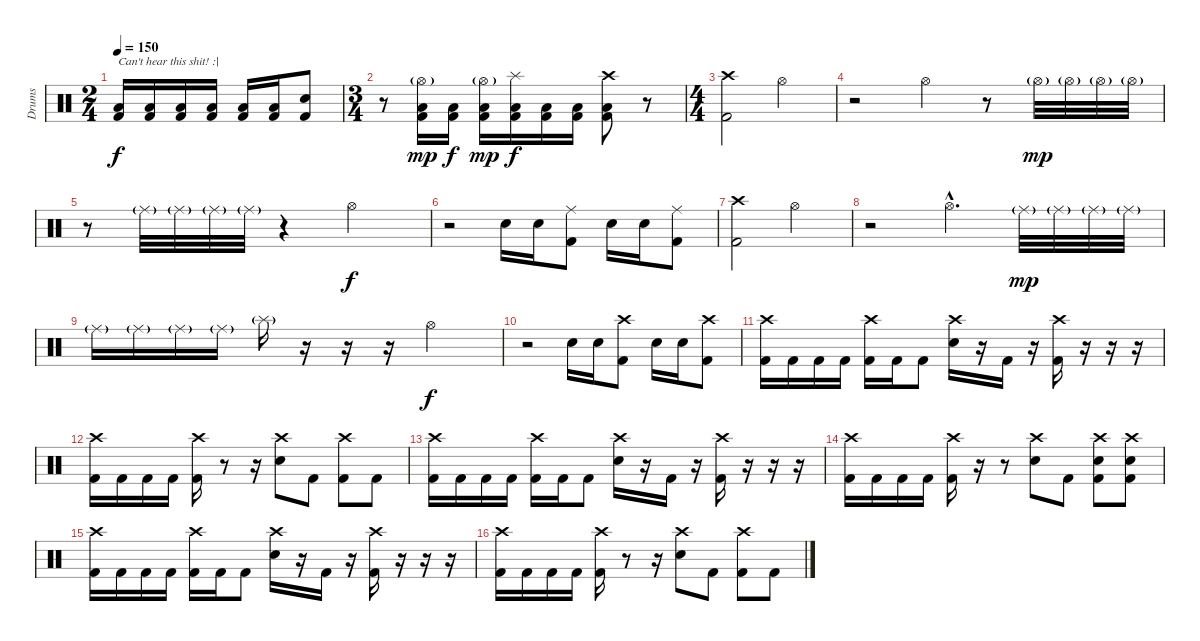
\track ("Drums" "Drums") {instrument percussion}
\staff {score}
\articulation defaults
\ts (2 4)
\tempo 150
\clef neutral
\ks c
("Low Floor Tom (hit)" "Kick (hit) 2").16{txt "Can't hear this shit! :|" dy f} ("Low Floor Tom (hit)" "Kick (hit) 2").16 ("Low Floor Tom (hit)" "Kick (hit) 2").16 ("Low Floor Tom (hit)" "Kick (hit) 2").16 ("Low Floor Tom (hit)" "Kick (hit) 2").16 ("Low Floor Tom (hit)" "Kick (hit) 2").16 ("Electric Snare (hit)" "Kick (hit) 2").8 |
\ts (3 4)
r.8 ("Hi-Hat (open)"{g} "Low Floor Tom (hit)" "Kick (hit) 2").16{dy mp} ("Low Floor Tom (hit)" "Kick (hit) 2").16{dy f} ("Hi-Hat (open)"{g} "Low Floor Tom (hit)" "Kick (hit) 2").16{dy mp} ("Splash (hit)" "Low Floor Tom (hit)" "Kick (hit) 2").16{dy f} ("Low Floor Tom (hit)" "Kick (hit) 2").16 ("Low Floor Tom (hit)" "Kick (hit) 2").16 ("Crash high (hit)" "Low Floor Tom (hit)" "Kick (hit) 2").8 r.8 |
\ts (4 4)
("Crash high (hit)" "Kick (hit) 2").2 "Hi-Hat (open)".2 |
r.2 "Hi-Hat (open)".4 r.8 "Hi-Hat (open)"{g}.32{dy mp} "Hi-Hat (open)"{g}.32 "Hi-Hat (open)"{g}.32 "Hi-Hat (open)"{g}.32 |
r.8 "Ride (middle)"{g}.32 "Ride (middle)"{g}.32 "Ride (middle)"{g}.32 "Ride (middle)"{g}.32 r.4 "Hi-Hat (open)".2{dy f} |
r.2 "Electric Snare (hit)".16 "Electric Snare (hit)".16 ("Ride (middle)" "Kick (hit) 2").8 "Electric Snare (hit)".16 "Electric Snare (hit)".16 ("Ride (middle)" "Kick (hit) 2").8 |
("Crash high (hit)" "Kick (hit) 2").2 "Hi-Hat (open)".2 |
r.2 "Hi-Hat (open)"{hac}.4{d} "Ride (middle)"{g}.32{dy mp} "Ride (middle)"{g}.32 "Ride (middle)"{g}.32 "Ride (middle)"{g}.32 |
"Ride (middle)"{g}.16 "Ride (middle)"{g}.16 "Ride (middle)"{g}.16 "Ride (middle)"{g}.16 "Splash (hit)"{g}.16 r.16 r.16 r.16 "Hi-Hat (open)".2{dy f} |
r.2 "Electric Snare (hit)".16 "Electric Snare (hit)".16 ("Crash high (hit)" "Kick (hit) 2").8 "Electric Snare (hit)".16 "Electric Snare (hit)".16 ("Crash high (hit)" "Kick (hit) 2").8 |
("Crash high (hit)" "Kick (hit) 2").16 "Kick (hit) 2".16 "Kick (hit) 2".16 "Kick (hit) 2".16 ("Crash high (hit)" "Kick (hit) 2").16 "Kick (hit) 2".16 "Kick (hit) 2".8 ("Crash high (hit)" "Electric Snare (hit)").16 r.16 "Kick (hit) 2".16 r.16 ("Crash high (hit)" "Kick (hit) 2").16 r.16 r.16 r.16 |
("Crash high (hit)" "Kick (hit) 2").16 "Kick (hit) 2".16 "Kick (hit) 2".16 "Kick (hit) 2".16 ("Crash high (hit)" "Kick (hit) 2").16 r.8 r.16 ("Crash high (hit)" "Electric Snare (hit)").8 "Kick (hit) 2".8 ("Crash high (hit)" "Kick (hit) 2").8 "Kick (hit) 2".8 |
("Crash high (hit)" "Kick (hit) 2").16 "Kick (hit) 2".16 "Kick (hit) 2".16 "Kick (hit) 2".16 ("Crash high (hit)" "Kick (hit) 2").16 "Kick (hit) 2".16 "Kick (hit) 2".8 ("Crash high (hit)" "Electric Snare (hit)").16 r.16 "Kick (hit) 2".16 r.16 ("Crash high (hit)" "Kick (hit) 2").16 r.16 r.16 r.16 |
("Crash high (hit)" "Kick (hit) 2").16 "Kick (hit) 2".16 "Kick (hit) 2".16 "Kick (hit) 2".16 ("Crash high (hit)" "Kick (hit) 2").16 r.16 r.8 ("Crash high (hit)" "Electric Snare (hit)").8 "Kick (hit) 2".8 ("Crash high (hit)" "Electric Snare (hit)" "Kick (hit) 2").8 ("Crash high (hit)" "Electric Snare (hit)" "Kick (hit) 2").8 |
("Crash high (hit)" "Kick (hit) 2").16 "Kick (hit) 2".16 "Kick (hit) 2".16 "Kick (hit) 2".16 ("Crash high (hit)" "Kick (hit) 2").16 "Kick (hit) 2".16 "Kick (hit) 2".8 ("Crash high (hit)" "Electric Snare (hit)").16 r.16 "Kick (hit) 2".16 r.16 ("Crash high (hit)" "Kick (hit) 2").16 r.16 r.16 r.16 |
("Crash high (hit)" "Kick (hit) 2").16 "Kick (hit) 2".16 "Kick (hit) 2".16 "Kick (hit) 2".16 ("Crash high (hit)" "Kick (hit) 2").16 r.8 r.16 ("Crash high (hit)" "Electric Snare (hit)").8 "Kick (hit) 2".8 ("Crash high (hit)" "Kick (hit) 2").8 "Kick (hit) 2".8
